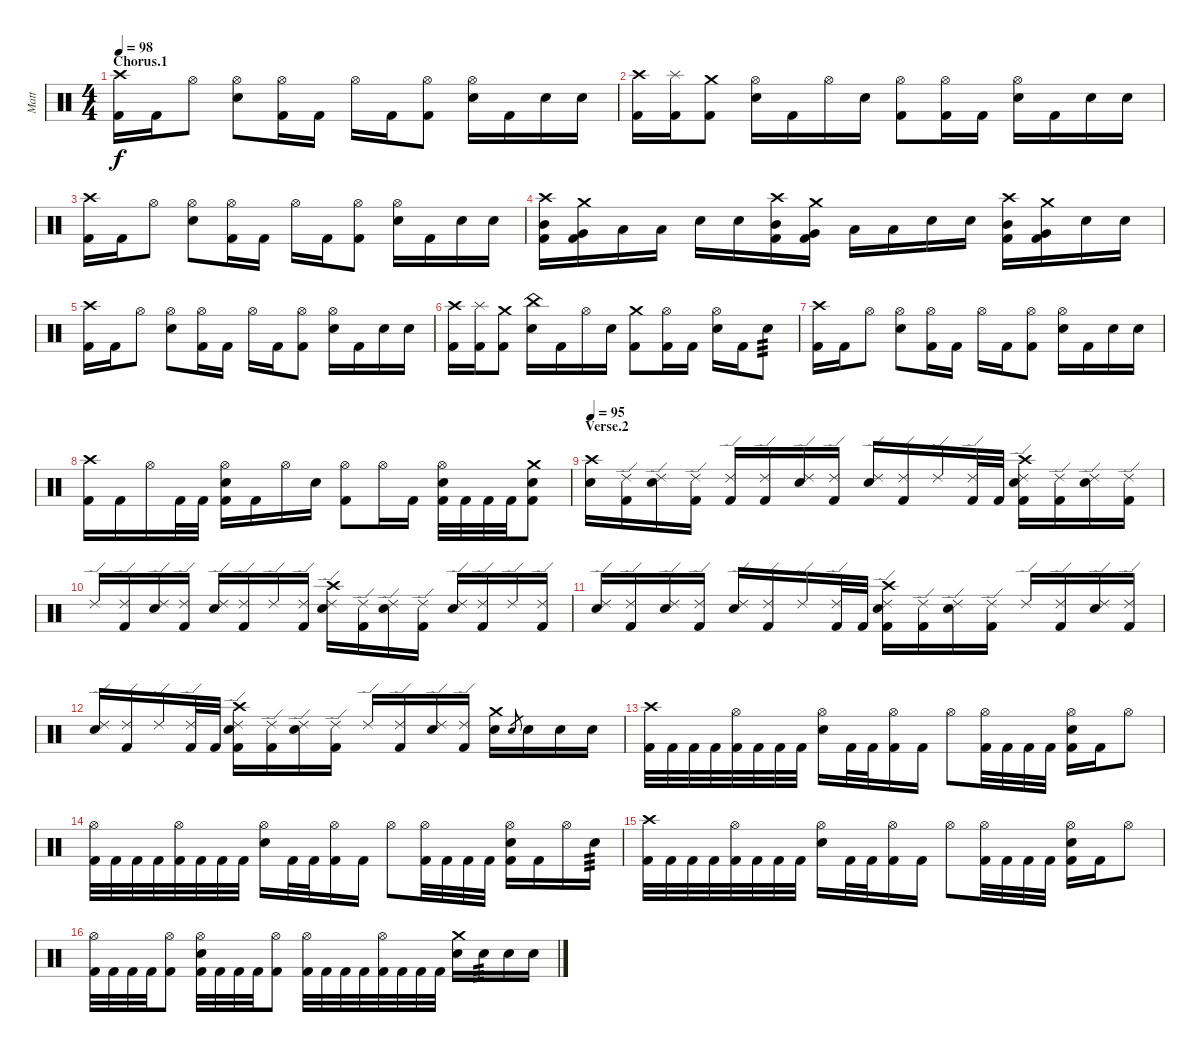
\track ("Matt" "Matt") {instrument percussion}
\staff {score}
\articulation defaults
\ts (4 4)
\section ("" "Chorus.1")
\tempo 98
\clef neutral
\ks c
("Crash high (hit)" "Kick (hit) 2").16{dy f} "Kick (hit) 2".16 "Hi-Hat (open)".8 ("Hi-Hat (open)" "Electric Snare (hit)").8 ("Hi-Hat (open)" "Kick (hit) 2").16 "Kick (hit) 2".16 "Hi-Hat (open)".16 "Kick (hit) 2".16 ("Hi-Hat (open)" "Kick (hit) 2").8 ("Hi-Hat (open)" "Electric Snare (hit)").16 "Kick (hit) 2".16 "Electric Snare (hit)".16 "Electric Snare (hit)".16 |
("Crash high (hit)" "Kick (hit) 2").16 ("Splash (hit)" "Kick (hit) 2").16 ("Crash medium (hit)" "Kick (hit) 2").8 ("Hi-Hat (open)" "Electric Snare (hit)").16 "Kick (hit) 2".16 "Hi-Hat (open)".16 "Electric Snare (hit)".16 ("Hi-Hat (open)" "Kick (hit) 2").8 ("Hi-Hat (open)" "Kick (hit) 2").16 "Kick (hit) 2".16 ("Hi-Hat (open)" "Electric Snare (hit)").16 "Kick (hit) 2".16 "Electric Snare (hit)".16 "Electric Snare (hit)".16 |
("Crash high (hit)" "Kick (hit) 2").16 "Kick (hit) 2".16 "Hi-Hat (open)".8 ("Hi-Hat (open)" "Electric Snare (hit)").8 ("Hi-Hat (open)" "Kick (hit) 2").16 "Kick (hit) 2".16 "Hi-Hat (open)".16 "Kick (hit) 2".16 ("Hi-Hat (open)" "Kick (hit) 2").8 ("Hi-Hat (open)" "Electric Snare (hit)").16 "Kick (hit) 2".16 "Electric Snare (hit)".16 "Electric Snare (hit)".16 |
("Crash high (hit)" "Mid Tom (hit)" "Kick (hit) 2").16 ("Crash medium (hit)" "Very Low Tom (hit)" "Kick (hit) 2").16 "Low Floor Tom (hit)".16 "Low Tom (hit)".16 "Electric Snare (hit)".16 "Electric Snare (hit)".16 ("Crash high (hit)" "Mid Tom (hit)" "Kick (hit) 2").16 ("Crash medium (hit)" "Very Low Tom (hit)" "Kick (hit) 2").16 "Low Floor Tom (hit)".16 "Low Tom (hit)".16 "Electric Snare (hit)".16 "Electric Snare (hit)".16 ("Crash high (hit)" "Mid Tom (hit)" "Kick (hit) 2").16 ("Crash medium (hit)" "Very Low Tom (hit)" "Kick (hit) 2").16 "Electric Snare (hit)".16 "Electric Snare (hit)".16 |
("Crash high (hit)" "Kick (hit) 2").16 "Kick (hit) 2".16 "Hi-Hat (open)".8 ("Hi-Hat (open)" "Electric Snare (hit)").8 ("Hi-Hat (open)" "Kick (hit) 2").16 "Kick (hit) 2".16 "Hi-Hat (open)".16 "Kick (hit) 2".16 ("Hi-Hat (open)" "Kick (hit) 2").8 ("Hi-Hat (open)" "Electric Snare (hit)").16 "Kick (hit) 2".16 "Electric Snare (hit)".16 "Electric Snare (hit)".16 |
("Crash high (hit)" "Kick (hit) 2").16 ("Splash (hit)" "Kick (hit) 2").16 ("Crash medium (hit)" "Kick (hit) 2").8 ("China (hit)" "Electric Snare (hit)").16 "Kick (hit) 2".16 "Hi-Hat (open)".16 "Electric Snare (hit)".16 ("Crash medium (hit)" "Kick (hit) 2").8 ("Hi-Hat (open)" "Kick (hit) 2").16 "Kick (hit) 2".16 ("Hi-Hat (open)" "Electric Snare (hit)").16 "Kick (hit) 2".16 "Electric Snare (hit)".8{tp 3} |
("Crash high (hit)" "Kick (hit) 2").16 "Kick (hit) 2".16 "Hi-Hat (open)".8 ("Hi-Hat (open)" "Electric Snare (hit)").8 ("Hi-Hat (open)" "Kick (hit) 2").16 "Kick (hit) 2".16 "Hi-Hat (open)".16 "Kick (hit) 2".16 ("Hi-Hat (open)" "Kick (hit) 2").8 ("Hi-Hat (open)" "Electric Snare (hit)").16 "Kick (hit) 2".16 "Electric Snare (hit)".16 "Electric Snare (hit)".16 |
("Crash high (hit)" "Kick (hit) 2").16 "Kick (hit) 2".16 "Hi-Hat (open)".16 "Kick (hit) 2".32 "Kick (hit) 2".32 ("Hi-Hat (open)" "Electric Snare (hit)" "Kick (hit) 2").16 "Kick (hit) 2".16 "Hi-Hat (open)".16 "Electric Snare (hit)".16 ("Hi-Hat (open)" "Kick (hit) 2").8 "Hi-Hat (open)".16 "Kick (hit) 2".16 ("Hi-Hat (open)" "Electric Snare (hit)" "Kick (hit) 2").32 "Kick (hit) 2".32 "Kick (hit) 2".32 "Kick (hit) 2".32 ("Crash medium (hit)" "Electric Snare (hit)" "Kick (hit) 2").8 |
\section ("" "Verse.2")
\tempo 95
("Crash high (hit)" "Electric Snare (hit)").16 ("Ride (edge) 2" "Kick (hit) 2").16 ("Ride (edge) 2" "Electric Snare (hit)").16 ("Ride (edge) 2" "Kick (hit) 2").16 ("Ride (edge) 2" "Kick (hit) 2").16 ("Ride (edge) 2" "Kick (hit) 2").16 ("Ride (edge) 2" "Electric Snare (hit)").16 ("Ride (edge) 2" "Kick (hit) 2").16 ("Ride (edge) 2" "Electric Snare (hit)").16 ("Ride (edge) 2" "Kick (hit) 2").16 "Ride (edge) 2".16 ("Ride (edge) 2" "Kick (hit) 2").32 "Kick (hit) 2".32 ("Crash high (hit)" "Ride (edge) 2" "Electric Snare (hit)" "Kick (hit) 2").16 ("Ride (edge) 2" "Kick (hit) 2").16 ("Ride (edge) 2" "Electric Snare (hit)").16 ("Ride (edge) 2" "Kick (hit) 2").16 |
"Ride (edge) 2".16 ("Ride (edge) 2" "Kick (hit) 2").16 ("Ride (edge) 2" "Electric Snare (hit)").16 ("Ride (edge) 2" "Kick (hit) 2").16 ("Ride (edge) 2" "Electric Snare (hit)").16 ("Ride (edge) 2" "Kick (hit) 2").16 "Ride (edge) 2".16 ("Ride (edge) 2" "Kick (hit) 2").16 ("Crash high (hit)" "Ride (edge) 2" "Electric Snare (hit)").16 ("Ride (edge) 2" "Kick (hit) 2").16 ("Ride (edge) 2" "Electric Snare (hit)").16 ("Ride (edge) 2" "Kick (hit) 2").16 ("Ride (edge) 2" "Electric Snare (hit)").16 ("Ride (edge) 2" "Kick (hit) 2").16 "Ride (edge) 2".16 ("Ride (edge) 2" "Kick (hit) 2").16 |
("Ride (edge) 2" "Electric Snare (hit)").16 ("Ride (edge) 2" "Kick (hit) 2").16 ("Ride (edge) 2" "Electric Snare (hit)").16 ("Ride (edge) 2" "Kick (hit) 2").16 ("Ride (edge) 2" "Electric Snare (hit)").16 ("Ride (edge) 2" "Kick (hit) 2").16 "Ride (edge) 2".16 ("Ride (edge) 2" "Kick (hit) 2").32 "Kick (hit) 2".32 ("Crash high (hit)" "Ride (edge) 2" "Electric Snare (hit)" "Kick (hit) 2").16 ("Ride (edge) 2" "Kick (hit) 2").16 ("Ride (edge) 2" "Electric Snare (hit)").16 ("Ride (edge) 2" "Kick (hit) 2").16 "Ride (edge) 2".16 ("Ride (edge) 2" "Kick (hit) 2").16 ("Ride (edge) 2" "Electric Snare (hit)").16 ("Ride (edge) 2" "Kick (hit) 2").16 |
("Ride (edge) 2" "Electric Snare (hit)").16 ("Ride (edge) 2" "Kick (hit) 2").16 "Ride (edge) 2".16 ("Ride (edge) 2" "Kick (hit) 2").32 "Kick (hit) 2".32 ("Crash high (hit)" "Ride (edge) 2" "Electric Snare (hit)" "Kick (hit) 2").16 ("Ride (edge) 2" "Kick (hit) 2").16 ("Ride (edge) 2" "Electric Snare (hit)").16 ("Ride (edge) 2" "Kick (hit) 2").16 "Ride (edge) 2".16 ("Ride (edge) 2" "Kick (hit) 2").16 ("Ride (edge) 2" "Electric Snare (hit)").16 ("Ride (edge) 2" "Kick (hit) 2").16 ("Crash medium (hit)" "Electric Snare (hit)").16 "Electric Snare (hit)".8{gr} "Electric Snare (hit)".16 "Electric Snare (hit)".16 "Electric Snare (hit)".16 |
("Crash high (hit)" "Kick (hit) 2").32 "Kick (hit) 2".32 "Kick (hit) 2".32 "Kick (hit) 2".32 ("Hi-Hat (open)" "Kick (hit) 2").32 "Kick (hit) 2".32 "Kick (hit) 2".32 "Kick (hit) 2".32 ("Hi-Hat (open)" "Electric Snare (hit)").16 "Kick (hit) 2".32 "Kick (hit) 2".32 ("Hi-Hat (open)" "Kick (hit) 2").16 "Kick (hit) 2".16 "Hi-Hat (open)".8 ("Hi-Hat (open)" "Kick (hit) 2").32 "Kick (hit) 2".32 "Kick (hit) 2".32 "Kick (hit) 2".32 ("Hi-Hat (open)" "Electric Snare (hit)" "Kick (hit) 2").16 "Kick (hit) 2".16 "Hi-Hat (open)".8 |
("Hi-Hat (open)" "Kick (hit) 2").32 "Kick (hit) 2".32 "Kick (hit) 2".32 "Kick (hit) 2".32 ("Hi-Hat (open)" "Kick (hit) 2").32 "Kick (hit) 2".32 "Kick (hit) 2".32 "Kick (hit) 2".32 ("Hi-Hat (open)" "Electric Snare (hit)").16 "Kick (hit) 2".32 "Kick (hit) 2".32 ("Hi-Hat (open)" "Kick (hit) 2").16 "Kick (hit) 2".16 "Hi-Hat (open)".8 ("Hi-Hat (open)" "Kick (hit) 2").32 "Kick (hit) 2".32 "Kick (hit) 2".32 "Kick (hit) 2".32 ("Hi-Hat (open)" "Electric Snare (hit)" "Kick (hit) 2").16 "Kick (hit) 2".16 "Hi-Hat (open)".16 "Electric Snare (hit)".16{tp 3} |
("Crash high (hit)" "Kick (hit) 2").32 "Kick (hit) 2".32 "Kick (hit) 2".32 "Kick (hit) 2".32 ("Hi-Hat (open)" "Kick (hit) 2").32 "Kick (hit) 2".32 "Kick (hit) 2".32 "Kick (hit) 2".32 ("Hi-Hat (open)" "Electric Snare (hit)").16 "Kick (hit) 2".32 "Kick (hit) 2".32 ("Hi-Hat (open)" "Kick (hit) 2").16 "Kick (hit) 2".16 "Hi-Hat (open)".8 ("Hi-Hat (open)" "Kick (hit) 2").32 "Kick (hit) 2".32 "Kick (hit) 2".32 "Kick (hit) 2".32 ("Hi-Hat (open)" "Electric Snare (hit)" "Kick (hit) 2").16 "Kick (hit) 2".16 "Hi-Hat (open)".8 |
("Hi-Hat (open)" "Kick (hit) 2").32 "Kick (hit) 2".32 "Kick (hit) 2".32 "Kick (hit) 2".32 ("Hi-Hat (open)" "Kick (hit) 2").8 ("Hi-Hat (open)" "Electric Snare (hit)" "Kick (hit) 2").32 "Kick (hit) 2".32 "Kick (hit) 2".32 "Kick (hit) 2".32 ("Hi-Hat (open)" "Kick (hit) 2").8 ("Hi-Hat (open)" "Kick (hit) 2").32 "Kick (hit) 2".32 "Kick (hit) 2".32 "Kick (hit) 2".32 ("Hi-Hat (open)" "Kick (hit) 2").32 "Kick (hit) 2".32 "Kick (hit) 2".32 "Kick (hit) 2".32 ("Crash medium (hit)" "Electric Snare (hit)").16 "Electric Snare (hit)".16{tp 3} "Electric Snare (hit)".16 "Electric Snare (hit)".16
